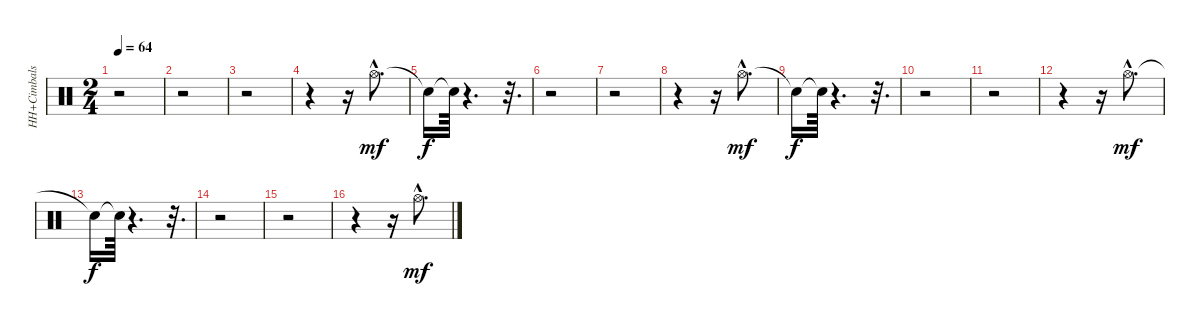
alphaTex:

\track ("HH+Cimbals" "HH+Cimbals") {instrument percussion}
\staff {score}
\articulation defaults
\ts (2 4)
\tempo 64
\clef neutral
\ks c
r.2{dy mf} |
r.2 |
r.2 |
r.4 r.16 "Hi-Hat (open)"{hac}.8{d} |
"Snare (hit)"{t}.16{dy f} "Snare (hit)"{t}.64 r.4{d} r.32{d} |
r.2 |
r.2 |
r.4 r.16 "Hi-Hat (open)"{hac}.8{d dy mf} |
"Snare (hit)"{t}.16{dy f} "Snare (hit)"{t}.64 r.4{d} r.32{d} |
r.2 |
r.2 |
r.4 r.16 "Hi-Hat (open)"{hac}.8{d dy mf} |
"Snare (hit)"{t}.16{dy f} "Snare (hit)"{t}.64 r.4{d} r.32{d} |
r.2 |
r.2 |
r.4 r.16 "Hi-Hat (open)"{hac}.8{d dy mf}
